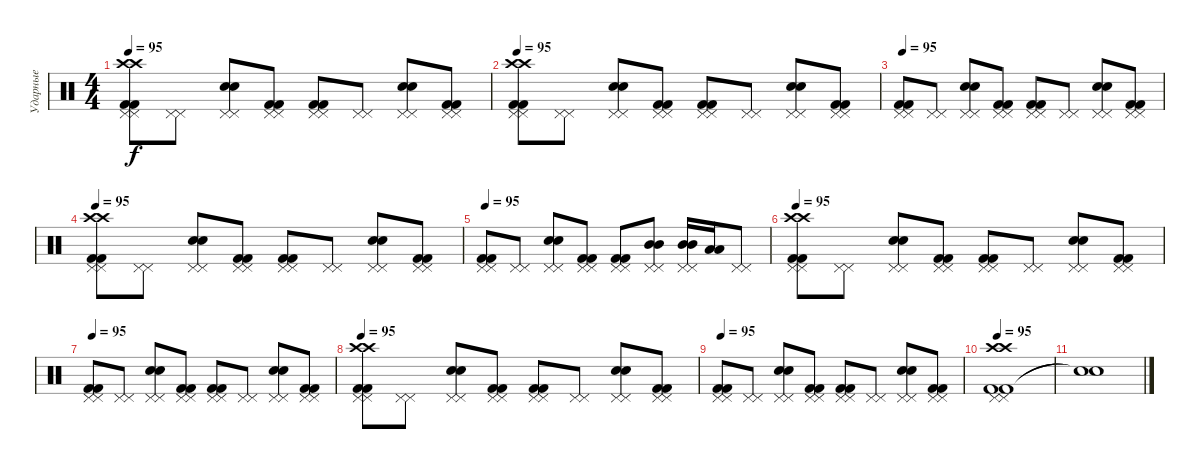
\track ("Ударные" "Ударные") {instrument percussion}
\staff {score}
\articulation defaults
\ts (4 4)
\tempo 95
\clef neutral
\ks c
("Kick (hit) 2" "Kick (hit) 2" "Pedal Hi-Hat (hit)" "Pedal Hi-Hat (hit)" "Crash high (hit)" "Crash high (hit)").8{dy f} ("Pedal Hi-Hat (hit)" "Pedal Hi-Hat (hit)").8 ("Pedal Hi-Hat (hit)" "Pedal Hi-Hat (hit)" "Electric Snare (hit)" "Electric Snare (hit)").8 ("Pedal Hi-Hat (hit)" "Pedal Hi-Hat (hit)" "Kick (hit) 2" "Kick (hit) 2").8 ("Pedal Hi-Hat (hit)" "Pedal Hi-Hat (hit)" "Kick (hit) 2" "Kick (hit) 2").8 ("Pedal Hi-Hat (hit)" "Pedal Hi-Hat (hit)").8 ("Pedal Hi-Hat (hit)" "Pedal Hi-Hat (hit)" "Electric Snare (hit)" "Electric Snare (hit)").8 ("Pedal Hi-Hat (hit)" "Pedal Hi-Hat (hit)" "Kick (hit) 2" "Kick (hit) 2").8 |
\tempo 95
("Kick (hit) 2" "Kick (hit) 2" "Pedal Hi-Hat (hit)" "Pedal Hi-Hat (hit)" "Crash high (hit)" "Crash high (hit)").8 ("Pedal Hi-Hat (hit)" "Pedal Hi-Hat (hit)").8 ("Pedal Hi-Hat (hit)" "Pedal Hi-Hat (hit)" "Electric Snare (hit)" "Electric Snare (hit)").8 ("Pedal Hi-Hat (hit)" "Pedal Hi-Hat (hit)" "Kick (hit) 2" "Kick (hit) 2").8 ("Pedal Hi-Hat (hit)" "Pedal Hi-Hat (hit)" "Kick (hit) 2" "Kick (hit) 2").8 ("Pedal Hi-Hat (hit)" "Pedal Hi-Hat (hit)").8 ("Pedal Hi-Hat (hit)" "Pedal Hi-Hat (hit)" "Electric Snare (hit)" "Electric Snare (hit)").8 ("Pedal Hi-Hat (hit)" "Pedal Hi-Hat (hit)" "Kick (hit) 2" "Kick (hit) 2").8 |
\tempo 95
("Kick (hit) 2" "Kick (hit) 2" "Pedal Hi-Hat (hit)" "Pedal Hi-Hat (hit)").8 ("Pedal Hi-Hat (hit)" "Pedal Hi-Hat (hit)").8 ("Pedal Hi-Hat (hit)" "Pedal Hi-Hat (hit)" "Electric Snare (hit)" "Electric Snare (hit)").8 ("Pedal Hi-Hat (hit)" "Pedal Hi-Hat (hit)" "Kick (hit) 2" "Kick (hit) 2").8 ("Pedal Hi-Hat (hit)" "Pedal Hi-Hat (hit)" "Kick (hit) 2" "Kick (hit) 2").8 ("Pedal Hi-Hat (hit)" "Pedal Hi-Hat (hit)").8 ("Pedal Hi-Hat (hit)" "Pedal Hi-Hat (hit)" "Electric Snare (hit)" "Electric Snare (hit)").8 ("Pedal Hi-Hat (hit)" "Pedal Hi-Hat (hit)" "Kick (hit) 2" "Kick (hit) 2").8 |
\tempo 95
("Kick (hit) 2" "Kick (hit) 2" "Pedal Hi-Hat (hit)" "Pedal Hi-Hat (hit)" "Crash high (hit)" "Crash high (hit)").8 ("Pedal Hi-Hat (hit)" "Pedal Hi-Hat (hit)").8 ("Pedal Hi-Hat (hit)" "Pedal Hi-Hat (hit)" "Electric Snare (hit)" "Electric Snare (hit)").8 ("Pedal Hi-Hat (hit)" "Pedal Hi-Hat (hit)" "Kick (hit) 2" "Kick (hit) 2").8 ("Pedal Hi-Hat (hit)" "Pedal Hi-Hat (hit)" "Kick (hit) 2" "Kick (hit) 2").8 ("Pedal Hi-Hat (hit)" "Pedal Hi-Hat (hit)").8 ("Pedal Hi-Hat (hit)" "Pedal Hi-Hat (hit)" "Electric Snare (hit)" "Electric Snare (hit)").8 ("Pedal Hi-Hat (hit)" "Pedal Hi-Hat (hit)" "Kick (hit) 2" "Kick (hit) 2").8 |
\tempo 95
("Kick (hit) 2" "Kick (hit) 2" "Pedal Hi-Hat (hit)" "Pedal Hi-Hat (hit)").8 ("Pedal Hi-Hat (hit)" "Pedal Hi-Hat (hit)").8 ("Pedal Hi-Hat (hit)" "Pedal Hi-Hat (hit)" "Electric Snare (hit)" "Electric Snare (hit)").8 ("Pedal Hi-Hat (hit)" "Pedal Hi-Hat (hit)" "Kick (hit) 2" "Kick (hit) 2").8 ("Pedal Hi-Hat (hit)" "Pedal Hi-Hat (hit)" "Kick (hit) 2" "Kick (hit) 2").8 ("Mid Tom (hit)" "Mid Tom (hit)" "Pedal Hi-Hat (hit)" "Pedal Hi-Hat (hit)").8 ("Mid Tom (hit)" "Mid Tom (hit)" "Pedal Hi-Hat (hit)" "Pedal Hi-Hat (hit)").16 ("Low Tom (hit)" "Low Tom (hit)").16 ("Pedal Hi-Hat (hit)" "Pedal Hi-Hat (hit)").8 |
\tempo 95
("Kick (hit) 2" "Kick (hit) 2" "Pedal Hi-Hat (hit)" "Pedal Hi-Hat (hit)" "Crash high (hit)" "Crash high (hit)").8 ("Pedal Hi-Hat (hit)" "Pedal Hi-Hat (hit)").8 ("Pedal Hi-Hat (hit)" "Pedal Hi-Hat (hit)" "Electric Snare (hit)" "Electric Snare (hit)").8 ("Pedal Hi-Hat (hit)" "Pedal Hi-Hat (hit)" "Kick (hit) 2" "Kick (hit) 2").8 ("Pedal Hi-Hat (hit)" "Pedal Hi-Hat (hit)" "Kick (hit) 2" "Kick (hit) 2").8 ("Pedal Hi-Hat (hit)" "Pedal Hi-Hat (hit)").8 ("Pedal Hi-Hat (hit)" "Pedal Hi-Hat (hit)" "Electric Snare (hit)" "Electric Snare (hit)").8 ("Pedal Hi-Hat (hit)" "Pedal Hi-Hat (hit)" "Kick (hit) 2" "Kick (hit) 2").8 |
\tempo 95
("Kick (hit) 2" "Kick (hit) 2" "Pedal Hi-Hat (hit)" "Pedal Hi-Hat (hit)").8 ("Pedal Hi-Hat (hit)" "Pedal Hi-Hat (hit)").8 ("Pedal Hi-Hat (hit)" "Pedal Hi-Hat (hit)" "Electric Snare (hit)" "Electric Snare (hit)").8 ("Pedal Hi-Hat (hit)" "Pedal Hi-Hat (hit)" "Kick (hit) 2" "Kick (hit) 2").8 ("Pedal Hi-Hat (hit)" "Pedal Hi-Hat (hit)" "Kick (hit) 2" "Kick (hit) 2").8 ("Pedal Hi-Hat (hit)" "Pedal Hi-Hat (hit)").8 ("Pedal Hi-Hat (hit)" "Pedal Hi-Hat (hit)" "Electric Snare (hit)" "Electric Snare (hit)").8 ("Pedal Hi-Hat (hit)" "Pedal Hi-Hat (hit)" "Kick (hit) 2" "Kick (hit) 2").8 |
\tempo 95
("Kick (hit) 2" "Kick (hit) 2" "Pedal Hi-Hat (hit)" "Pedal Hi-Hat (hit)" "Crash high (hit)" "Crash high (hit)").8 ("Pedal Hi-Hat (hit)" "Pedal Hi-Hat (hit)").8 ("Pedal Hi-Hat (hit)" "Pedal Hi-Hat (hit)" "Electric Snare (hit)" "Electric Snare (hit)").8 ("Pedal Hi-Hat (hit)" "Pedal Hi-Hat (hit)" "Kick (hit) 2" "Kick (hit) 2").8 ("Pedal Hi-Hat (hit)" "Pedal Hi-Hat (hit)" "Kick (hit) 2" "Kick (hit) 2").8 ("Pedal Hi-Hat (hit)" "Pedal Hi-Hat (hit)").8 ("Pedal Hi-Hat (hit)" "Pedal Hi-Hat (hit)" "Electric Snare (hit)" "Electric Snare (hit)").8 ("Pedal Hi-Hat (hit)" "Pedal Hi-Hat (hit)" "Kick (hit) 2" "Kick (hit) 2").8 |
\tempo 95
("Kick (hit) 2" "Kick (hit) 2" "Pedal Hi-Hat (hit)" "Pedal Hi-Hat (hit)").8 ("Pedal Hi-Hat (hit)" "Pedal Hi-Hat (hit)").8 ("Pedal Hi-Hat (hit)" "Pedal Hi-Hat (hit)" "Electric Snare (hit)" "Electric Snare (hit)").8 ("Pedal Hi-Hat (hit)" "Pedal Hi-Hat (hit)" "Kick (hit) 2" "Kick (hit) 2").8 ("Pedal Hi-Hat (hit)" "Pedal Hi-Hat (hit)" "Kick (hit) 2" "Kick (hit) 2").8 ("Pedal Hi-Hat (hit)" "Pedal Hi-Hat (hit)").8 ("Pedal Hi-Hat (hit)" "Pedal Hi-Hat (hit)" "Electric Snare (hit)" "Electric Snare (hit)").8 ("Pedal Hi-Hat (hit)" "Pedal Hi-Hat (hit)" "Kick (hit) 2" "Kick (hit) 2").8 |
\tempo 95
("Kick (hit) 2" "Kick (hit) 2" "Pedal Hi-Hat (hit)" "Pedal Hi-Hat (hit)" "Crash high (hit)" "Crash high (hit)").1 |
("Snare (hit)"{t} "Snare (hit)"{t}).1
